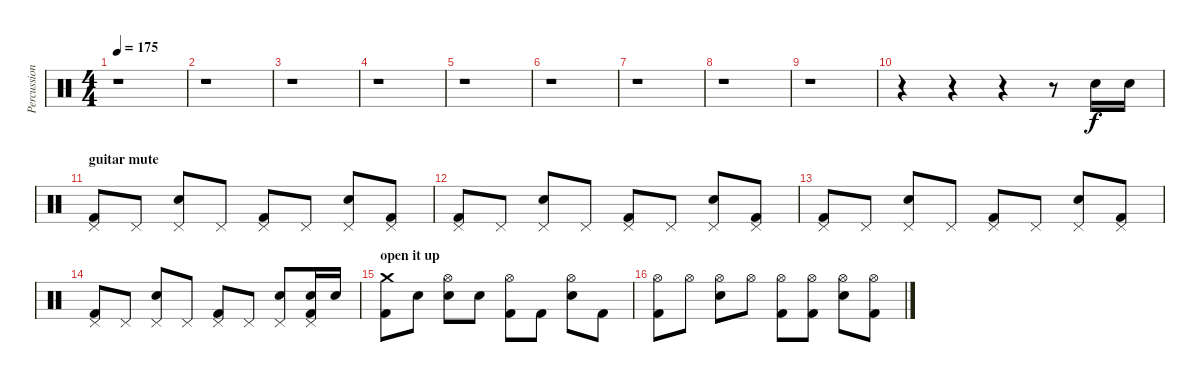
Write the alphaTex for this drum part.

\track ("Percussion" "Percussion") {instrument percussion}
\staff {score}
\articulation defaults
\ts (4 4)
\tempo 175
\clef neutral
\ks c
r.1{dy f} |
r.1 |
r.1 |
r.1 |
r.1 |
r.1 |
r.1 |
r.1 |
r.1 |
r.4 r.4 r.4 r.8 "Electric Snare (hit)".16 "Electric Snare (hit)".16 |
\section ("" "guitar mute")
("Pedal Hi-Hat (hit)" "Kick (hit) 2").8 "Pedal Hi-Hat (hit)".8 ("Pedal Hi-Hat (hit)" "Electric Snare (hit)").8 "Pedal Hi-Hat (hit)".8 ("Pedal Hi-Hat (hit)" "Kick (hit) 2").8 "Pedal Hi-Hat (hit)".8 ("Pedal Hi-Hat (hit)" "Electric Snare (hit)").8 ("Pedal Hi-Hat (hit)" "Kick (hit) 2").8 |
("Pedal Hi-Hat (hit)" "Kick (hit) 2").8 "Pedal Hi-Hat (hit)".8 ("Pedal Hi-Hat (hit)" "Electric Snare (hit)").8 "Pedal Hi-Hat (hit)".8 ("Pedal Hi-Hat (hit)" "Kick (hit) 2").8 "Pedal Hi-Hat (hit)".8 ("Pedal Hi-Hat (hit)" "Electric Snare (hit)").8 ("Pedal Hi-Hat (hit)" "Kick (hit) 2").8 |
("Pedal Hi-Hat (hit)" "Kick (hit) 2").8 "Pedal Hi-Hat (hit)".8 ("Pedal Hi-Hat (hit)" "Electric Snare (hit)").8 "Pedal Hi-Hat (hit)".8 ("Pedal Hi-Hat (hit)" "Kick (hit) 2").8 "Pedal Hi-Hat (hit)".8 ("Pedal Hi-Hat (hit)" "Electric Snare (hit)").8 ("Pedal Hi-Hat (hit)" "Kick (hit) 2").8 |
("Pedal Hi-Hat (hit)" "Kick (hit) 2").8 "Pedal Hi-Hat (hit)".8 ("Pedal Hi-Hat (hit)" "Electric Snare (hit)").8 "Pedal Hi-Hat (hit)".8 ("Pedal Hi-Hat (hit)" "Kick (hit) 2").8 "Pedal Hi-Hat (hit)".8 ("Pedal Hi-Hat (hit)" "Electric Snare (hit)").8 ("Pedal Hi-Hat (hit)" "Electric Snare (hit)" "Kick (hit) 2").16 "Electric Snare (hit)".16 |
\section ("" "open it up")
("Crash medium (hit)" "Kick (hit) 2").8 "Snare (hit)"{x}.8 ("Hi-Hat (open)" "Electric Snare (hit)").8 "Snare (hit)"{x}.8 ("Hi-Hat (open)" "Kick (hit) 2").8 "Kick (hit) 2".8 ("Hi-Hat (open)" "Electric Snare (hit)").8 "Kick (hit) 2".8 |
("Hi-Hat (open)" "Kick (hit) 2").8 "Hi-Hat (open)"{x}.8 ("Hi-Hat (open)" "Electric Snare (hit)").8 "Hi-Hat (open)"{x}.8 ("Hi-Hat (open)" "Kick (hit) 2").8 ("Hi-Hat (open)"{x} "Kick (hit) 2").8 ("Hi-Hat (open)" "Electric Snare (hit)").8 ("Hi-Hat (open)"{x} "Kick (hit) 2").8
